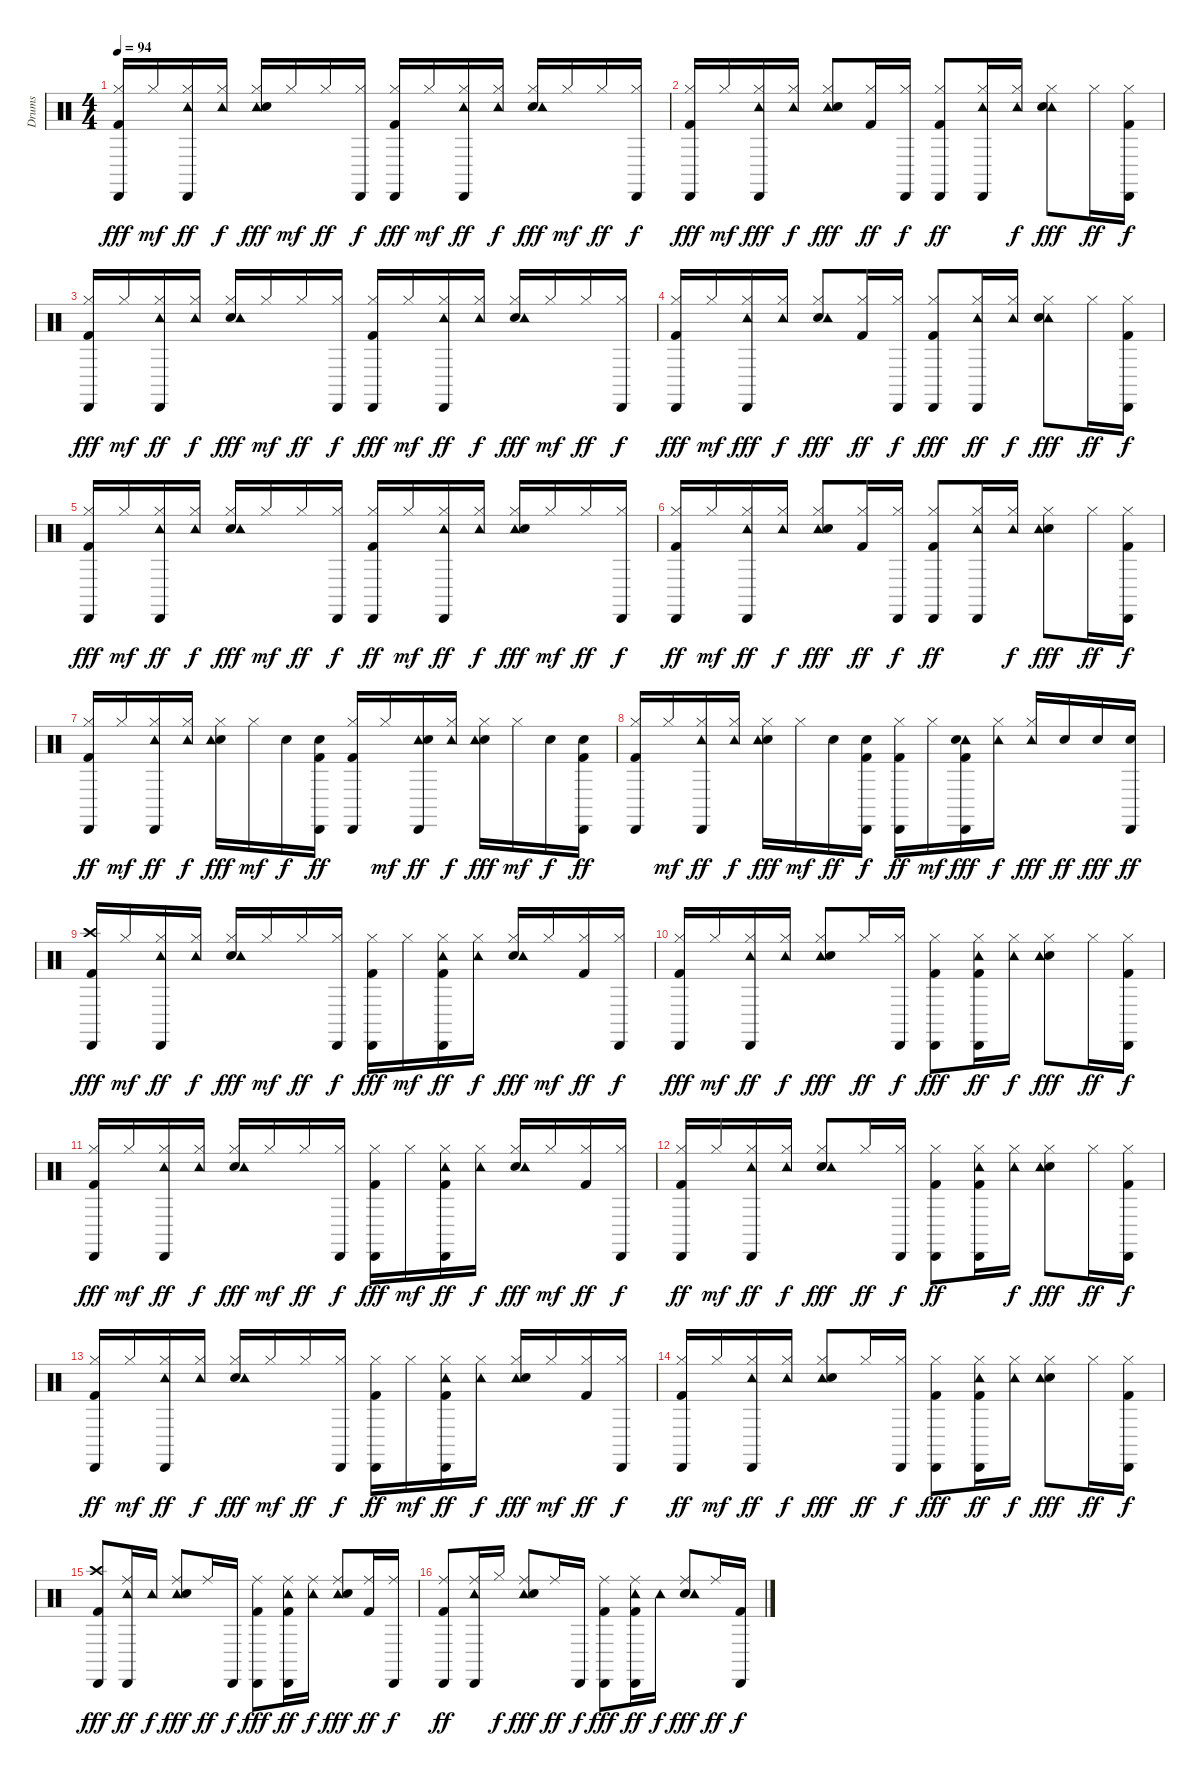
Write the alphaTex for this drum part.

\track ("Drums" "Drums") {instrument percussion}
\staff {score}
\articulation defaults
\ts (4 4)
\tempo 94
\clef neutral
\ks c
("Kick (hit) 2" "Cabasa (hit)" "Hi-Hat (closed)").16{dy fff} "Hi-Hat (closed)".16{dy mf} ("Tambourine (hit)" "Hi-Hat (closed)" "Cabasa (hit)").16{dy ff} ("Tambourine (hit)" "Hi-Hat (closed)").16{dy f} ("Hi-Hat (closed)" "Tambourine (hit)" "Snare (hit) 2").16{dy fff} "Hi-Hat (closed)".16{dy mf} "Hi-Hat (closed)".16{dy ff} ("Cabasa (hit)" "Hi-Hat (closed)").16{dy f} ("Cabasa (hit)" "Kick (hit) 2" "Hi-Hat (closed)").16{dy fff} "Hi-Hat (closed)".16{dy mf} ("Tambourine (hit)" "Cabasa (hit)" "Hi-Hat (closed)").16{dy ff} ("Hi-Hat (closed)" "Tambourine (hit)").16{dy f} ("Snare (hit) 2" "Hi-Hat (closed)" "Tambourine (hit)").16{dy fff} "Hi-Hat (closed)".16{dy mf} "Hi-Hat (closed)".16{dy ff} ("Hi-Hat (closed)" "Cabasa (hit)").16{dy f} |
("Hi-Hat (closed)" "Cabasa (hit)" "Kick (hit) 2").16{dy fff} "Hi-Hat (closed)".16{dy mf} ("Hi-Hat (closed)" "Cabasa (hit)" "Tambourine (hit)").16{dy fff} ("Hi-Hat (closed)" "Tambourine (hit)").16{dy f} ("Tambourine (hit)" "Hi-Hat (closed)" "Snare (hit) 2").8{dy fff} ("Kick (hit) 2" "Hi-Hat (closed)").16{dy ff} ("Hi-Hat (closed)" "Cabasa (hit)").16{dy f} ("Hi-Hat (closed)" "Kick (hit) 2" "Cabasa (hit)").8{dy ff} ("Cabasa (hit)" "Tambourine (hit)" "Hi-Hat (closed)").16 ("Hi-Hat (closed)" "Tambourine (hit)").16{dy f} ("Hi-Hat (closed)" "Tambourine (hit)" "Snare (hit) 2").8{dy fff} "Hi-Hat (closed)".16{dy ff} ("Kick (hit) 2" "Hi-Hat (closed)" "Cabasa (hit)").16{dy f} |
("Cabasa (hit)" "Hi-Hat (closed)" "Kick (hit) 2").16{dy fff} "Hi-Hat (closed)".16{dy mf} ("Hi-Hat (closed)" "Cabasa (hit)" "Tambourine (hit)").16{dy ff} ("Tambourine (hit)" "Hi-Hat (closed)").16{dy f} ("Hi-Hat (closed)" "Snare (hit) 2" "Tambourine (hit)").16{dy fff} "Hi-Hat (closed)".16{dy mf} "Hi-Hat (closed)".16{dy ff} ("Hi-Hat (closed)" "Cabasa (hit)").16{dy f} ("Cabasa (hit)" "Kick (hit) 2" "Hi-Hat (closed)").16{dy fff} "Hi-Hat (closed)".16{dy mf} ("Hi-Hat (closed)" "Cabasa (hit)" "Tambourine (hit)").16{dy ff} ("Hi-Hat (closed)" "Tambourine (hit)").16{dy f} ("Snare (hit) 2" "Hi-Hat (closed)" "Tambourine (hit)").16{dy fff} "Hi-Hat (closed)".16{dy mf} "Hi-Hat (closed)".16{dy ff} ("Hi-Hat (closed)" "Cabasa (hit)").16{dy f} |
("Kick (hit) 2" "Cabasa (hit)" "Hi-Hat (closed)").16{dy fff} "Hi-Hat (closed)".16{dy mf} ("Hi-Hat (closed)" "Cabasa (hit)" "Tambourine (hit)").16{dy fff} ("Tambourine (hit)" "Hi-Hat (closed)").16{dy f} ("Snare (hit) 2" "Tambourine (hit)" "Hi-Hat (closed)").8{dy fff} ("Hi-Hat (closed)" "Kick (hit) 2").16{dy ff} ("Hi-Hat (closed)" "Cabasa (hit)").16{dy f} ("Cabasa (hit)" "Kick (hit) 2" "Hi-Hat (closed)").8{dy fff} ("Tambourine (hit)" "Hi-Hat (closed)" "Cabasa (hit)").16{dy ff} ("Hi-Hat (closed)" "Tambourine (hit)").16{dy f} ("Hi-Hat (closed)" "Tambourine (hit)" "Snare (hit) 2").8{dy fff} "Hi-Hat (closed)".16{dy ff} ("Hi-Hat (closed)" "Cabasa (hit)" "Kick (hit) 2").16{dy f} |
("Cabasa (hit)" "Kick (hit) 2" "Hi-Hat (closed)").16{dy fff} "Hi-Hat (closed)".16{dy mf} ("Cabasa (hit)" "Hi-Hat (closed)" "Tambourine (hit)").16{dy ff} ("Hi-Hat (closed)" "Tambourine (hit)").16{dy f} ("Snare (hit) 2" "Hi-Hat (closed)" "Tambourine (hit)").16{dy fff} "Hi-Hat (closed)".16{dy mf} "Hi-Hat (closed)".16{dy ff} ("Cabasa (hit)" "Hi-Hat (closed)").16{dy f} ("Kick (hit) 2" "Hi-Hat (closed)" "Cabasa (hit)").16{dy ff} "Hi-Hat (closed)".16{dy mf} ("Hi-Hat (closed)" "Tambourine (hit)" "Cabasa (hit)").16{dy ff} ("Hi-Hat (closed)" "Tambourine (hit)").16{dy f} ("Tambourine (hit)" "Snare (hit) 2" "Hi-Hat (closed)").16{dy fff} "Hi-Hat (closed)".16{dy mf} "Hi-Hat (closed)".16{dy ff} ("Hi-Hat (closed)" "Cabasa (hit)").16{dy f} |
("Kick (hit) 2" "Hi-Hat (closed)" "Cabasa (hit)").16{dy ff} "Hi-Hat (closed)".16{dy mf} ("Tambourine (hit)" "Cabasa (hit)" "Hi-Hat (closed)").16{dy ff} ("Tambourine (hit)" "Hi-Hat (closed)").16{dy f} ("Tambourine (hit)" "Hi-Hat (closed)" "Snare (hit) 2").8{dy fff} ("Kick (hit) 2" "Hi-Hat (closed)").16{dy ff} ("Hi-Hat (closed)" "Cabasa (hit)").16{dy f} ("Hi-Hat (closed)" "Kick (hit) 2" "Cabasa (hit)").8{dy ff} ("Hi-Hat (closed)" "Tambourine (hit)" "Cabasa (hit)").16 ("Hi-Hat (closed)" "Tambourine (hit)").16{dy f} ("Snare (hit) 2" "Hi-Hat (closed)" "Tambourine (hit)").8{dy fff} "Hi-Hat (closed)".16{dy ff} ("Cabasa (hit)" "Hi-Hat (closed)" "Kick (hit) 2").16{dy f} |
("Kick (hit) 2" "Hi-Hat (closed)" "Cabasa (hit)").16{dy ff} "Hi-Hat (closed)".16{dy mf} ("Tambourine (hit)" "Cabasa (hit)" "Hi-Hat (closed)").16{dy ff} ("Hi-Hat (closed)" "Tambourine (hit)").16{dy f} ("Snare (hit) 2" "Hi-Hat (closed)" "Tambourine (hit)").16{dy fff} "Hi-Hat (closed)".16{dy mf} "Snare (hit) 2".16{dy f} ("Kick (hit) 2" "Snare (hit) 2" "Cabasa (hit)").16{dy ff} ("Cabasa (hit)" "Hi-Hat (closed)" "Kick (hit) 2").16 "Hi-Hat (closed)".16{dy mf} ("Tambourine (hit)" "Snare (hit) 2" "Cabasa (hit)").16{dy ff} ("Tambourine (hit)" "Hi-Hat (closed)").16{dy f} ("Snare (hit) 2" "Hi-Hat (closed)" "Tambourine (hit)").16{dy fff} "Hi-Hat (closed)".16{dy mf} "Snare (hit) 2".16{dy f} ("Kick (hit) 2" "Snare (hit) 2" "Cabasa (hit)").16{dy ff} |
("Kick (hit) 2" "Hi-Hat (closed)" "Cabasa (hit)").16 "Hi-Hat (closed)".16{dy mf} ("Tambourine (hit)" "Hi-Hat (closed)" "Cabasa (hit)").16{dy ff} ("Hi-Hat (closed)" "Tambourine (hit)").16{dy f} ("Snare (hit) 2" "Tambourine (hit)" "Hi-Hat (closed)").16{dy fff} "Hi-Hat (closed)".16{dy mf} "Snare (hit) 2".16{dy ff} ("Snare (hit) 2" "Cabasa (hit)" "Kick (hit) 2").16{dy f} ("Kick (hit) 2" "Hi-Hat (closed)" "Cabasa (hit)").16{dy ff} "Hi-Hat (closed)".16{dy mf} ("Tambourine (hit)" "Snare (hit) 2" "Cabasa (hit)" "Kick (hit) 2").16{dy fff} ("Hi-Hat (closed)" "Tambourine (hit)").16{dy f} ("Tambourine (hit)" "Hi-Hat (closed)").16{dy fff} "Snare (hit) 2".16{dy ff} "Snare (hit) 2".16{dy fff} ("Cabasa (hit)" "Snare (hit) 2").16{dy ff} |
("Cabasa (hit)" "Crash high (hit)" "Kick (hit) 2").16{dy fff} "Hi-Hat (closed)".16{dy mf} ("Hi-Hat (closed)" "Cabasa (hit)" "Tambourine (hit)").16{dy ff} ("Tambourine (hit)" "Hi-Hat (closed)").16{dy f} ("Hi-Hat (closed)" "Snare (hit) 2" "Tambourine (hit)").16{dy fff} "Hi-Hat (closed)".16{dy mf} "Hi-Hat (closed)".16{dy ff} ("Cabasa (hit)" "Hi-Hat (closed)").16{dy f} ("Cabasa (hit)" "Kick (hit) 2" "Hi-Hat (closed)").16{dy fff} "Hi-Hat (closed)".16{dy mf} ("Cabasa (hit)" "Tambourine (hit)" "Hi-Hat (closed)" "Kick (hit) 2").16{dy ff} ("Hi-Hat (closed)" "Tambourine (hit)").16{dy f} ("Snare (hit) 2" "Tambourine (hit)" "Hi-Hat (closed)").16{dy fff} "Hi-Hat (closed)".16{dy mf} ("Hi-Hat (closed)" "Kick (hit) 2").16{dy ff} ("Cabasa (hit)" "Hi-Hat (closed)").16{dy f} |
("Hi-Hat (closed)" "Cabasa (hit)" "Kick (hit) 2").16{dy fff} "Hi-Hat (closed)".16{dy mf} ("Tambourine (hit)" "Cabasa (hit)" "Hi-Hat (closed)").16{dy ff} ("Tambourine (hit)" "Hi-Hat (closed)").16{dy f} ("Tambourine (hit)" "Snare (hit) 2" "Hi-Hat (closed)").8{dy fff} "Hi-Hat (closed)".16{dy ff} ("Hi-Hat (closed)" "Cabasa (hit)").16{dy f} ("Cabasa (hit)" "Kick (hit) 2" "Hi-Hat (closed)").8{dy fff} ("Tambourine (hit)" "Cabasa (hit)" "Hi-Hat (closed)" "Kick (hit) 2").16{dy ff} ("Tambourine (hit)" "Hi-Hat (closed)").16{dy f} ("Snare (hit) 2" "Hi-Hat (closed)" "Tambourine (hit)").8{dy fff} "Hi-Hat (closed)".16{dy ff} ("Cabasa (hit)" "Hi-Hat (closed)" "Kick (hit) 2").16{dy f} |
("Hi-Hat (closed)" "Cabasa (hit)" "Kick (hit) 2").16{dy fff} "Hi-Hat (closed)".16{dy mf} ("Hi-Hat (closed)" "Tambourine (hit)" "Cabasa (hit)").16{dy ff} ("Tambourine (hit)" "Hi-Hat (closed)").16{dy f} ("Hi-Hat (closed)" "Snare (hit) 2" "Tambourine (hit)").16{dy fff} "Hi-Hat (closed)".16{dy mf} "Hi-Hat (closed)".16{dy ff} ("Hi-Hat (closed)" "Cabasa (hit)").16{dy f} ("Cabasa (hit)" "Hi-Hat (closed)" "Kick (hit) 2").16{dy fff} "Hi-Hat (closed)".16{dy mf} ("Kick (hit) 2" "Cabasa (hit)" "Tambourine (hit)" "Hi-Hat (closed)").16{dy ff} ("Hi-Hat (closed)" "Tambourine (hit)").16{dy f} ("Snare (hit) 2" "Hi-Hat (closed)" "Tambourine (hit)").16{dy fff} "Hi-Hat (closed)".16{dy mf} ("Kick (hit) 2" "Hi-Hat (closed)").16{dy ff} ("Hi-Hat (closed)" "Cabasa (hit)").16{dy f} |
("Hi-Hat (closed)" "Kick (hit) 2" "Cabasa (hit)").16{dy ff} "Hi-Hat (closed)".16{dy mf} ("Tambourine (hit)" "Cabasa (hit)" "Hi-Hat (closed)").16{dy ff} ("Hi-Hat (closed)" "Tambourine (hit)").16{dy f} ("Snare (hit) 2" "Tambourine (hit)" "Hi-Hat (closed)").8{dy fff} "Hi-Hat (closed)".16{dy ff} ("Hi-Hat (closed)" "Cabasa (hit)").16{dy f} ("Kick (hit) 2" "Hi-Hat (closed)" "Cabasa (hit)").8{dy ff} ("Kick (hit) 2" "Tambourine (hit)" "Cabasa (hit)" "Hi-Hat (closed)").16 ("Hi-Hat (closed)" "Tambourine (hit)").16{dy f} ("Hi-Hat (closed)" "Snare (hit) 2" "Tambourine (hit)").8{dy fff} "Hi-Hat (closed)".16{dy ff} ("Cabasa (hit)" "Hi-Hat (closed)" "Kick (hit) 2").16{dy f} |
("Hi-Hat (closed)" "Kick (hit) 2" "Cabasa (hit)").16{dy ff} "Hi-Hat (closed)".16{dy mf} ("Hi-Hat (closed)" "Cabasa (hit)" "Tambourine (hit)").16{dy ff} ("Tambourine (hit)" "Hi-Hat (closed)").16{dy f} ("Hi-Hat (closed)" "Snare (hit) 2" "Tambourine (hit)").16{dy fff} "Hi-Hat (closed)".16{dy mf} "Hi-Hat (closed)".16{dy ff} ("Hi-Hat (closed)" "Cabasa (hit)").16{dy f} ("Kick (hit) 2" "Hi-Hat (closed)" "Cabasa (hit)").16{dy ff} "Hi-Hat (closed)".16{dy mf} ("Kick (hit) 2" "Hi-Hat (closed)" "Cabasa (hit)" "Tambourine (hit)").16{dy ff} ("Tambourine (hit)" "Hi-Hat (closed)").16{dy f} ("Tambourine (hit)" "Hi-Hat (closed)" "Snare (hit) 2").16{dy fff} "Hi-Hat (closed)".16{dy mf} ("Hi-Hat (closed)" "Kick (hit) 2").16{dy ff} ("Hi-Hat (closed)" "Cabasa (hit)").16{dy f} |
("Hi-Hat (closed)" "Kick (hit) 2" "Cabasa (hit)").16{dy ff} "Hi-Hat (closed)".16{dy mf} ("Tambourine (hit)" "Hi-Hat (closed)" "Cabasa (hit)").16{dy ff} ("Hi-Hat (closed)" "Tambourine (hit)").16{dy f} ("Tambourine (hit)" "Snare (hit) 2" "Hi-Hat (closed)").8{dy fff} "Hi-Hat (closed)".16{dy ff} ("Hi-Hat (closed)" "Cabasa (hit)").16{dy f} ("Cabasa (hit)" "Hi-Hat (closed)" "Kick (hit) 2").8{dy fff} ("Cabasa (hit)" "Hi-Hat (closed)" "Kick (hit) 2" "Tambourine (hit)").16{dy ff} ("Tambourine (hit)" "Hi-Hat (closed)").16{dy f} ("Snare (hit) 2" "Hi-Hat (closed)" "Tambourine (hit)").8{dy fff} "Hi-Hat (closed)".16{dy ff} ("Kick (hit) 2" "Hi-Hat (closed)" "Cabasa (hit)").16{dy f} |
("Crash high (hit)" "Cabasa (hit)" "Kick (hit) 2").8{dy fff} ("Tambourine (hit)" "Cabasa (hit)" "Ride (middle)").16{dy ff} "Tambourine (hit)".16{dy f} ("Ride (middle)" "Tambourine (hit)" "Snare (hit) 2").8{dy fff} "Ride (middle)".16{dy ff} "Cabasa (hit)".16{dy f} ("Kick (hit) 2" "Cabasa (hit)" "Ride (middle)").8{dy fff} ("Ride (middle)" "Cabasa (hit)" "Tambourine (hit)" "Kick (hit) 2").16{dy ff} ("Ride (middle)" "Tambourine (hit)").16{dy f} ("Ride (middle)" "Tambourine (hit)" "Snare (hit) 2").8{dy fff} ("Ride (middle)" "Kick (hit) 2").16{dy ff} ("Cabasa (hit)" "Ride (middle)").16{dy f} |
("Ride (middle)" "Kick (hit) 2" "Cabasa (hit)").8{dy ff} ("Ride (middle)" "Cabasa (hit)" "Tambourine (hit)").16 "Hi-Hat (closed)".16{dy f} ("Tambourine (hit)" "Ride (middle)" "Snare (hit) 2").8{dy fff} "Ride (middle)".16{dy ff} "Cabasa (hit)".16{dy f} ("Cabasa (hit)" "Ride (middle)" "Kick (hit) 2").8{dy fff} ("Kick (hit) 2" "Tambourine (hit)" "Cabasa (hit)" "Ride (middle)").16{dy ff} "Tambourine (hit)".16{dy f} ("Snare (hit) 2" "Ride (middle)" "Tambourine (hit)").8{dy fff} "Ride (middle)".16{dy ff} ("Kick (hit) 2" "Cabasa (hit)").16{dy f}
